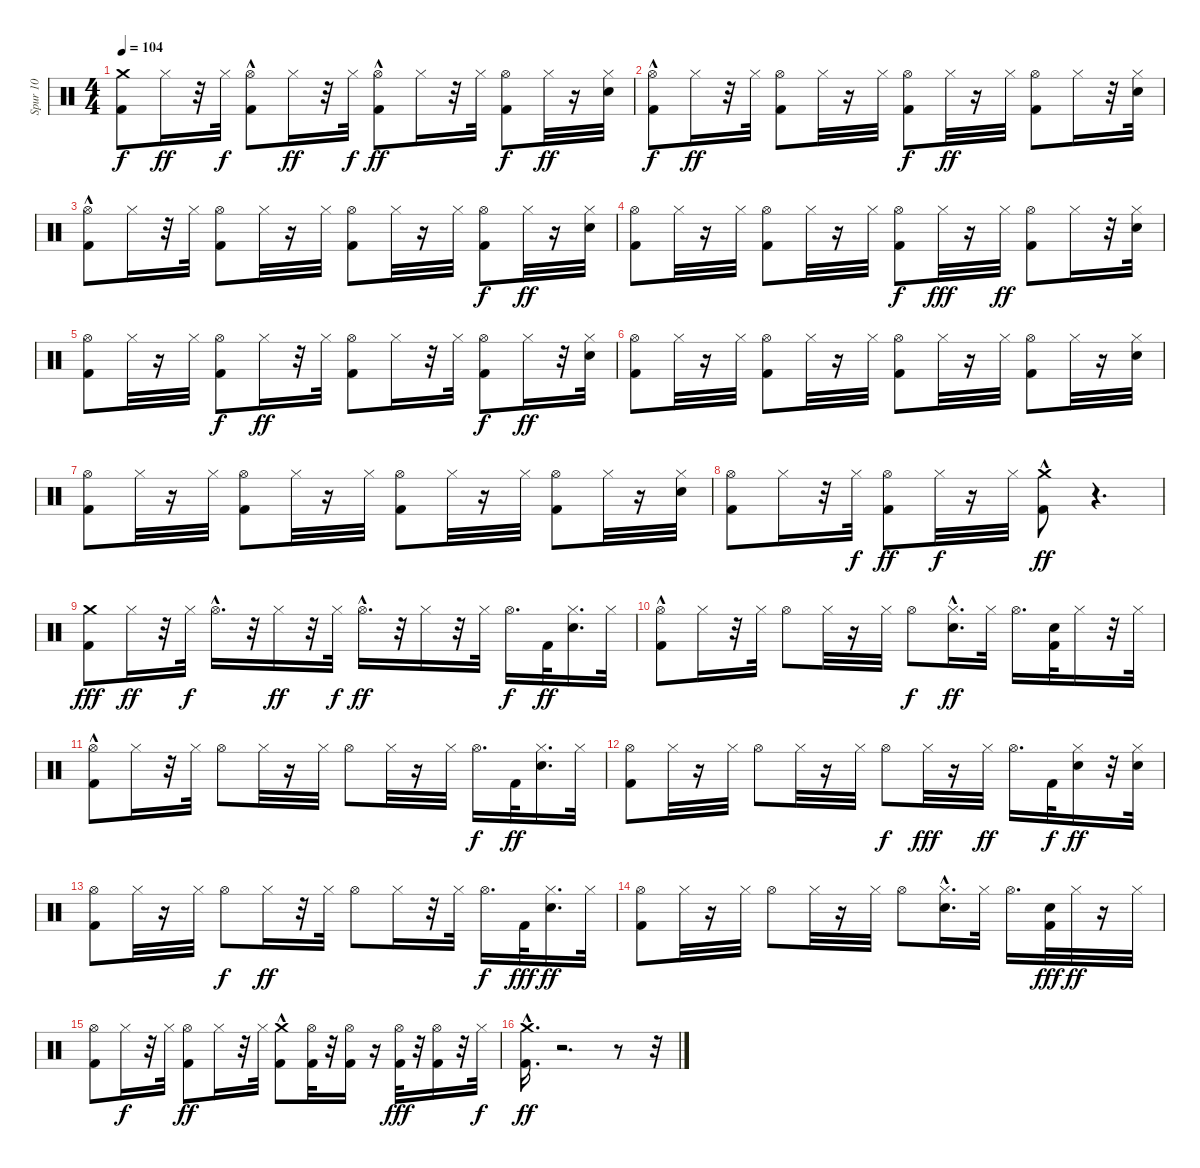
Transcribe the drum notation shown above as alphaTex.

\track ("Spur 10" "Spur 10") {instrument percussion}
\staff {score}
\articulation defaults
\ts (4 4)
\tempo 104
\clef neutral
\ks c
("Kick (hit) 2" "Crash medium (hit)").8{dy f} "Hi-Hat (closed)".16{dy ff} r.32 "Hi-Hat (closed)".32{dy f} ("Kick (hit) 2" "Hi-Hat (open)"{hac}).8 "Hi-Hat (closed)".16{dy ff} r.32 "Hi-Hat (closed)".32{dy f} ("Kick (hit) 2" "Hi-Hat (open)"{hac}).8{dy ff} "Hi-Hat (closed)".16 r.32 "Hi-Hat (closed)".32 ("Kick (hit) 2" "Hi-Hat (open)").8{dy f} "Hi-Hat (closed)".32{dy ff} r.16 ("Electric Snare (hit)" "Hi-Hat (closed)").32 |
("Kick (hit) 2" "Hi-Hat (open)"{hac}).8{dy f} "Hi-Hat (closed)".16{dy ff} r.32 "Hi-Hat (closed)".32 ("Kick (hit) 2" "Hi-Hat (open)").8 "Hi-Hat (closed)".32 r.16 "Hi-Hat (closed)".32 ("Kick (hit) 2" "Hi-Hat (open)").8{dy f} "Hi-Hat (closed)".32{dy ff} r.16 "Hi-Hat (closed)".32 ("Kick (hit) 2" "Hi-Hat (open)").8 "Hi-Hat (closed)".16 r.32 ("Electric Snare (hit)" "Hi-Hat (closed)").32 |
("Kick (hit) 2" "Hi-Hat (open)"{hac}).8 "Hi-Hat (closed)".16 r.32 "Hi-Hat (closed)".32 ("Kick (hit) 2" "Hi-Hat (open)").8 "Hi-Hat (closed)".32 r.16 "Hi-Hat (closed)".32 ("Kick (hit) 2" "Hi-Hat (open)").8 "Hi-Hat (closed)".32 r.16 "Hi-Hat (closed)".32 ("Kick (hit) 2" "Hi-Hat (open)").8{dy f} "Hi-Hat (closed)".32{dy ff} r.16 ("Electric Snare (hit)" "Hi-Hat (closed)").32 |
("Kick (hit) 2" "Hi-Hat (open)").8 "Hi-Hat (closed)".32 r.16 "Hi-Hat (closed)".32 ("Kick (hit) 2" "Hi-Hat (open)").8 "Hi-Hat (closed)".32 r.16 "Hi-Hat (closed)".32 ("Kick (hit) 2" "Hi-Hat (open)").8{dy f} "Hi-Hat (closed)".32{dy fff} r.16 "Hi-Hat (closed)".32{dy ff} ("Kick (hit) 2" "Hi-Hat (open)").8 "Hi-Hat (closed)".16 r.32 ("Electric Snare (hit)" "Hi-Hat (closed)").32 |
("Kick (hit) 2" "Hi-Hat (open)").8 "Hi-Hat (closed)".32 r.16 "Hi-Hat (closed)".32 ("Kick (hit) 2" "Hi-Hat (open)").8{dy f} "Hi-Hat (closed)".16{dy ff} r.32 "Hi-Hat (closed)".32 ("Kick (hit) 2" "Hi-Hat (open)").8 "Hi-Hat (closed)".16 r.32 "Hi-Hat (closed)".32 ("Kick (hit) 2" "Hi-Hat (open)").8{dy f} "Hi-Hat (closed)".16{dy ff} r.32 ("Electric Snare (hit)" "Hi-Hat (closed)").32 |
("Kick (hit) 2" "Hi-Hat (open)").8 "Hi-Hat (closed)".32 r.16 "Hi-Hat (closed)".32 ("Kick (hit) 2" "Hi-Hat (open)").8 "Hi-Hat (closed)".32 r.16 "Hi-Hat (closed)".32 ("Kick (hit) 2" "Hi-Hat (open)").8 "Hi-Hat (closed)".32 r.16 "Hi-Hat (closed)".32 ("Kick (hit) 2" "Hi-Hat (open)").8 "Hi-Hat (closed)".32 r.16 ("Electric Snare (hit)" "Hi-Hat (closed)").32 |
("Kick (hit) 2" "Hi-Hat (open)").8 "Hi-Hat (closed)".32 r.16 "Hi-Hat (closed)".32 ("Kick (hit) 2" "Hi-Hat (open)").8 "Hi-Hat (closed)".32 r.16 "Hi-Hat (closed)".32 ("Kick (hit) 2" "Hi-Hat (open)").8 "Hi-Hat (closed)".32 r.16 "Hi-Hat (closed)".32 ("Kick (hit) 2" "Hi-Hat (open)").8 "Hi-Hat (closed)".32 r.16 ("Electric Snare (hit)" "Hi-Hat (closed)").32 |
("Kick (hit) 2" "Hi-Hat (open)").8 "Hi-Hat (closed)".16 r.32 "Hi-Hat (closed)".32{dy f} ("Kick (hit) 2" "Hi-Hat (open)").8{dy ff} "Hi-Hat (closed)".32{dy f} r.16 "Hi-Hat (closed)".32 ("Crash medium (hit)"{hac} "Kick (hit) 2").8{dy ff} r.4{d} |
("Kick (hit) 2" "Crash medium (hit)").8{dy fff} "Hi-Hat (closed)".16{dy ff} r.32 "Hi-Hat (closed)".32{dy f} "Hi-Hat (open)"{hac}.16{d} r.32 "Hi-Hat (closed)".16{dy ff} r.32 "Hi-Hat (closed)".32{dy f} "Hi-Hat (open)"{hac}.16{d dy ff} r.32 "Hi-Hat (closed)".16 r.32 "Hi-Hat (closed)".32 "Hi-Hat (open)".16{d dy f} "Kick (hit) 2".32{dy ff} ("Electric Snare (hit)" "Hi-Hat (closed)").16{d} "Hi-Hat (closed)".32 |
("Kick (hit) 2" "Hi-Hat (open)"{hac}).8 "Hi-Hat (closed)".16 r.32 "Hi-Hat (closed)".32 "Hi-Hat (open)".8 "Hi-Hat (closed)".32 r.16 "Hi-Hat (closed)".32 "Hi-Hat (open)".8{dy f} ("Electric Snare (hit)"{hac} "Hi-Hat (closed)").16{d dy ff} "Hi-Hat (closed)".32 "Hi-Hat (open)".16{d} ("Electric Snare (hit)" "Kick (hit) 2").32 "Hi-Hat (closed)".16 r.32 "Hi-Hat (closed)".32 |
("Kick (hit) 2" "Hi-Hat (open)"{hac}).8 "Hi-Hat (closed)".16 r.32 "Hi-Hat (closed)".32 "Hi-Hat (open)".8 "Hi-Hat (closed)".32 r.16 "Hi-Hat (closed)".32 "Hi-Hat (open)".8 "Hi-Hat (closed)".32 r.16 "Hi-Hat (closed)".32 "Hi-Hat (open)".16{d dy f} "Kick (hit) 2".32{dy ff} ("Electric Snare (hit)" "Hi-Hat (closed)").16{d} "Hi-Hat (closed)".32 |
("Kick (hit) 2" "Hi-Hat (open)").8 "Hi-Hat (closed)".32 r.16 "Hi-Hat (closed)".32 "Hi-Hat (open)".8 "Hi-Hat (closed)".32 r.16 "Hi-Hat (closed)".32 "Hi-Hat (open)".8{dy f} "Hi-Hat (closed)".32{dy fff} r.16 "Hi-Hat (closed)".32{dy ff} "Hi-Hat (open)".16{d} "Kick (hit) 2".32{dy f} ("Electric Snare (hit)" "Hi-Hat (closed)").16{dy ff} r.32 ("Electric Snare (hit)" "Hi-Hat (closed)").32 |
("Kick (hit) 2" "Hi-Hat (open)").8 "Hi-Hat (closed)".32 r.16 "Hi-Hat (closed)".32 "Hi-Hat (open)".8{dy f} "Hi-Hat (closed)".16{dy ff} r.32 "Hi-Hat (closed)".32 "Hi-Hat (open)".8 "Hi-Hat (closed)".16 r.32 "Hi-Hat (closed)".32 "Hi-Hat (open)".16{d dy f} "Kick (hit) 2".32{dy fff} ("Electric Snare (hit)" "Hi-Hat (closed)").16{d dy ff} "Hi-Hat (closed)".32 |
("Kick (hit) 2" "Hi-Hat (open)").8 "Hi-Hat (closed)".32 r.16 "Hi-Hat (closed)".32 "Hi-Hat (open)".8 "Hi-Hat (closed)".32 r.16 "Hi-Hat (closed)".32 "Hi-Hat (open)".8 ("Electric Snare (hit)"{hac} "Hi-Hat (closed)").16{d} "Hi-Hat (closed)".32 "Hi-Hat (open)".16{d} ("Electric Snare (hit)" "Kick (hit) 2").32{dy fff} "Hi-Hat (closed)".32{dy ff} r.16 "Hi-Hat (closed)".32 |
("Kick (hit) 2" "Hi-Hat (open)").8 "Hi-Hat (closed)".16{dy f} r.32 "Hi-Hat (closed)".32 ("Kick (hit) 2" "Hi-Hat (open)").8{dy ff} "Hi-Hat (closed)".16 r.32 "Hi-Hat (closed)".32 ("Kick (hit) 2" "Crash medium (hit)"{hac}).8 ("Hi-Hat (open)" "Kick (hit) 2").32 r.32 ("Hi-Hat (open)" "Kick (hit) 2").16 r.16 ("Kick (hit) 2" "Hi-Hat (open)").32{dy fff} r.32 ("Hi-Hat (open)" "Kick (hit) 2").16 r.32 "Hi-Hat (closed)".32{dy f} |
("Crash medium (hit)"{hac} "Kick (hit) 2"{hac}).16{d dy ff} r.2{d} r.8 r.32
